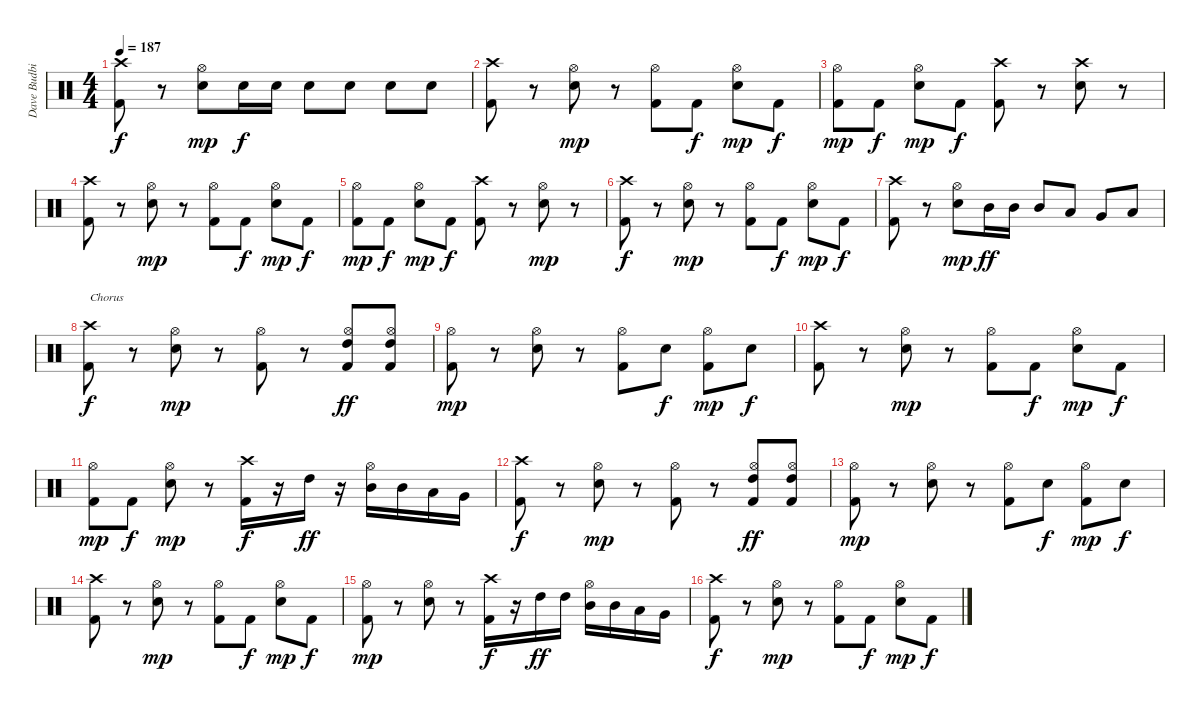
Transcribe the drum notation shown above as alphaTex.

\track ("Dave Budbill" "Dave Budbi") {instrument percussion}
\staff {score}
\articulation defaults
\ts (4 4)
\tempo 187
\clef neutral
\ks c
("Crash high (hit)" "Kick (hit) 2").8{dy f} r.8 ("Hi-Hat (open)" "Snare (hit) 2").8{dy mp} "Snare (hit) 2".16{dy f} "Snare (hit) 2".16 "Snare (hit) 2".8 "Snare (hit) 2".8 "Snare (hit) 2".8 "Snare (hit) 2".8 |
("Crash high (hit)" "Kick (hit) 2").8 r.8 ("Hi-Hat (open)" "Snare (hit) 2").8{dy mp} r.8 ("Hi-Hat (open)" "Kick (hit) 2").8 "Kick (hit) 2".8{dy f} ("Hi-Hat (open)" "Snare (hit) 2").8{dy mp} "Kick (hit) 2".8{dy f} |
("Hi-Hat (open)" "Kick (hit) 2").8{dy mp} "Kick (hit) 2".8{dy f} ("Hi-Hat (open)" "Snare (hit) 2").8{dy mp} "Kick (hit) 2".8{dy f} ("Crash high (hit)" "Kick (hit) 2").8 r.8 ("Crash high (hit)" "Snare (hit) 2").8 r.8 |
("Crash high (hit)" "Kick (hit) 2").8 r.8 ("Hi-Hat (open)" "Snare (hit) 2").8{dy mp} r.8 ("Hi-Hat (open)" "Kick (hit) 2").8 "Kick (hit) 2".8{dy f} ("Hi-Hat (open)" "Snare (hit) 2").8{dy mp} "Kick (hit) 2".8{dy f} |
("Hi-Hat (open)" "Kick (hit) 2").8{dy mp} "Kick (hit) 2".8{dy f} ("Hi-Hat (open)" "Snare (hit) 2").8{dy mp} "Kick (hit) 2".8{dy f} ("Crash high (hit)" "Kick (hit) 2").8 r.8 ("Hi-Hat (open)" "Snare (hit) 2").8{dy mp} r.8 |
("Crash high (hit)" "Kick (hit) 2").8{dy f} r.8 ("Hi-Hat (open)" "Snare (hit) 2").8{dy mp} r.8 ("Hi-Hat (open)" "Kick (hit) 2").8 "Kick (hit) 2".8{dy f} ("Hi-Hat (open)" "Snare (hit) 2").8{dy mp} "Kick (hit) 2".8{dy f} |
("Crash high (hit)" "Kick (hit) 2").8 r.8 ("Hi-Hat (open)" "Snare (hit) 2").8{dy mp} "Mid Tom (hit)".16{dy ff} "Mid Tom (hit)".16 "Mid Tom (hit)".8 "Low Tom (hit)".8 "Very Low Tom (hit)".8 "Low Floor Tom (hit)".8 |
("Crash high (hit)" "Kick (hit) 2").8{txt "Chorus" dy f} r.8 ("Hi-Hat (open)" "Snare (hit) 2").8{dy mp} r.8 ("Hi-Hat (open)" "Kick (hit) 2").8 r.8 ("Hi-Hat (open)" "High Tom (hit)" "Kick (hit) 2").8{dy ff} ("Hi-Hat (open)" "High Tom (hit)" "Kick (hit) 2").8 |
("Hi-Hat (open)" "Kick (hit) 2").8{dy mp} r.8 ("Hi-Hat (open)" "Snare (hit) 2").8 r.8 ("Hi-Hat (open)" "Kick (hit) 2").8 "Snare (hit) 2".8{dy f} ("Hi-Hat (open)" "Kick (hit) 2").8{dy mp} "Snare (hit) 2".8{dy f} |
("Crash high (hit)" "Kick (hit) 2").8 r.8 ("Hi-Hat (open)" "Snare (hit) 2").8{dy mp} r.8 ("Hi-Hat (open)" "Kick (hit) 2").8 "Kick (hit) 2".8{dy f} ("Hi-Hat (open)" "Snare (hit) 2").8{dy mp} "Kick (hit) 2".8{dy f} |
("Hi-Hat (open)" "Kick (hit) 2").8{dy mp} "Kick (hit) 2".8{dy f} ("Hi-Hat (open)" "Snare (hit) 2").8{dy mp} r.8 ("Crash high (hit)" "Kick (hit) 2").16{dy f} r.16 "High Tom (hit)".16{dy ff} r.16 ("Hi-Hat (open)" "Mid Tom (hit)").16 "Mid Tom (hit)".16 "Low Tom (hit)".16 "Very Low Tom (hit)".16 |
("Crash high (hit)" "Kick (hit) 2").8{dy f} r.8 ("Hi-Hat (open)" "Snare (hit) 2").8{dy mp} r.8 ("Hi-Hat (open)" "Kick (hit) 2").8 r.8 ("Hi-Hat (open)" "High Tom (hit)" "Kick (hit) 2").8{dy ff} ("Hi-Hat (open)" "High Tom (hit)" "Kick (hit) 2").8 |
("Hi-Hat (open)" "Kick (hit) 2").8{dy mp} r.8 ("Hi-Hat (open)" "Snare (hit) 2").8 r.8 ("Hi-Hat (open)" "Kick (hit) 2").8 "Snare (hit) 2".8{dy f} ("Hi-Hat (open)" "Kick (hit) 2").8{dy mp} "Snare (hit) 2".8{dy f} |
("Crash high (hit)" "Kick (hit) 2").8 r.8 ("Hi-Hat (open)" "Snare (hit) 2").8{dy mp} r.8 ("Hi-Hat (open)" "Kick (hit) 2").8 "Kick (hit) 2".8{dy f} ("Hi-Hat (open)" "Snare (hit) 2").8{dy mp} "Kick (hit) 2".8{dy f} |
("Hi-Hat (open)" "Kick (hit) 2").8{dy mp} r.8 ("Hi-Hat (open)" "Snare (hit) 2").8 r.8 ("Crash high (hit)" "Kick (hit) 2").16{dy f} r.16 "High Tom (hit)".16{dy ff} "High Tom (hit)".16 ("Hi-Hat (open)" "Mid Tom (hit)").16 "Mid Tom (hit)".16 "Low Tom (hit)".16 "Very Low Tom (hit)".16 |
("Crash high (hit)" "Kick (hit) 2").8{dy f} r.8 ("Hi-Hat (open)" "Snare (hit) 2").8{dy mp} r.8 ("Hi-Hat (open)" "Kick (hit) 2").8 "Kick (hit) 2".8{dy f} ("Hi-Hat (open)" "Snare (hit) 2").8{dy mp} "Kick (hit) 2".8{dy f}
